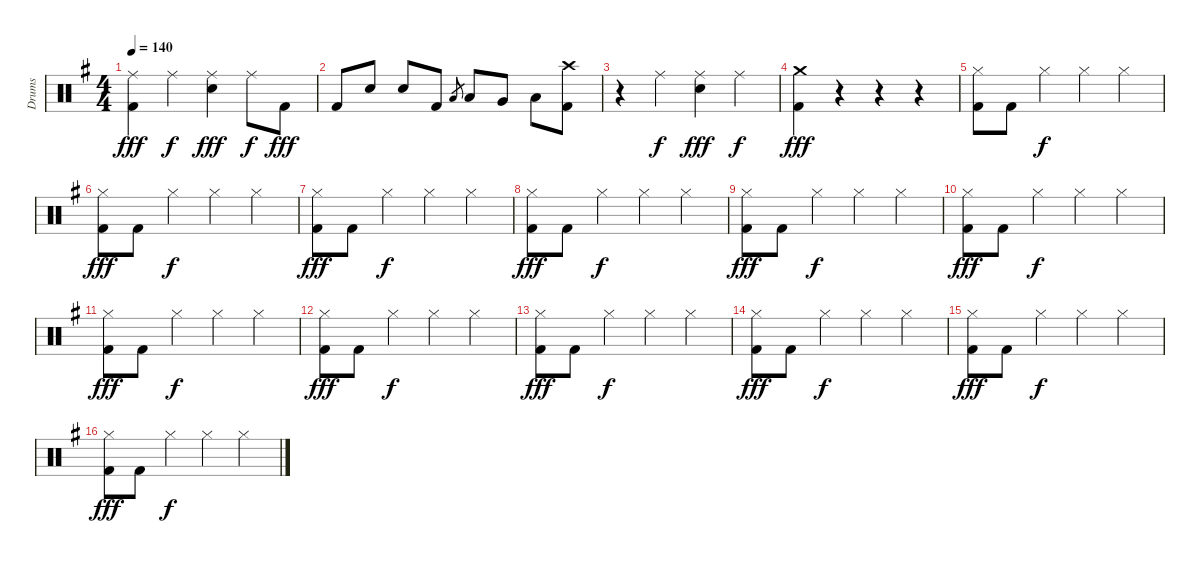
\track ("Drums" "Drums") {instrument percussion}
\staff {score}
\articulation defaults
\ts (4 4)
\tempo 140
\clef neutral
\ks eminor
("Ride (middle)" "Kick (hit) 2").4{dy fff} "Ride (middle)".4{dy f} ("Electric Snare (hit)" "Ride (middle)").4{dy fff} "Ride (middle)".8{dy f} "Kick (hit) 2".8{dy fff} |
"Kick (hit) 2".8 "Electric Snare (hit)".8 "Electric Snare (hit)".8 "Kick (hit) 2".8 "Low Tom (hit)".8{gr} "Low Tom (hit)".8 "Very Low Tom (hit)".8 "Low Floor Tom (hit)".8 ("Crash high (hit)" "Kick (hit) 2").8 |
r.4 "Ride (middle)".4{dy f} ("Electric Snare (hit)" "Ride (middle)").4{dy fff} "Ride (middle)".4{dy f} |
("Crash medium (hit)" "Kick (hit) 2").4{dy fff} r.4 r.4 r.4 |
("Hi-Hat (closed)" "Kick (hit) 2").8 "Kick (hit) 2".8 "Hi-Hat (closed)".4{dy f} "Hi-Hat (closed)".4 "Hi-Hat (closed)".4 |
("Hi-Hat (closed)" "Kick (hit) 2").8{dy fff} "Kick (hit) 2".8 "Hi-Hat (closed)".4{dy f} "Hi-Hat (closed)".4 "Hi-Hat (closed)".4 |
("Hi-Hat (closed)" "Kick (hit) 2").8{dy fff} "Kick (hit) 2".8 "Hi-Hat (closed)".4{dy f} "Hi-Hat (closed)".4 "Hi-Hat (closed)".4 |
("Hi-Hat (closed)" "Kick (hit) 2").8{dy fff} "Kick (hit) 2".8 "Hi-Hat (closed)".4{dy f} "Hi-Hat (closed)".4 "Hi-Hat (closed)".4 |
("Hi-Hat (closed)" "Kick (hit) 2").8{dy fff} "Kick (hit) 2".8 "Hi-Hat (closed)".4{dy f} "Hi-Hat (closed)".4 "Hi-Hat (closed)".4 |
("Hi-Hat (closed)" "Kick (hit) 2").8{dy fff} "Kick (hit) 2".8 "Hi-Hat (closed)".4{dy f} "Hi-Hat (closed)".4 "Hi-Hat (closed)".4 |
("Hi-Hat (closed)" "Kick (hit) 2").8{dy fff} "Kick (hit) 2".8 "Hi-Hat (closed)".4{dy f} "Hi-Hat (closed)".4 "Hi-Hat (closed)".4 |
("Hi-Hat (closed)" "Kick (hit) 2").8{dy fff} "Kick (hit) 2".8 "Hi-Hat (closed)".4{dy f} "Hi-Hat (closed)".4 "Hi-Hat (closed)".4 |
("Hi-Hat (closed)" "Kick (hit) 2").8{dy fff} "Kick (hit) 2".8 "Hi-Hat (closed)".4{dy f} "Hi-Hat (closed)".4 "Hi-Hat (closed)".4 |
("Hi-Hat (closed)" "Kick (hit) 2").8{dy fff} "Kick (hit) 2".8 "Hi-Hat (closed)".4{dy f} "Hi-Hat (closed)".4 "Hi-Hat (closed)".4 |
("Hi-Hat (closed)" "Kick (hit) 2").8{dy fff} "Kick (hit) 2".8 "Hi-Hat (closed)".4{dy f} "Hi-Hat (closed)".4 "Hi-Hat (closed)".4 |
("Hi-Hat (closed)" "Kick (hit) 2").8{dy fff} "Kick (hit) 2".8 "Hi-Hat (closed)".4{dy f} "Hi-Hat (closed)".4 "Hi-Hat (closed)".4
